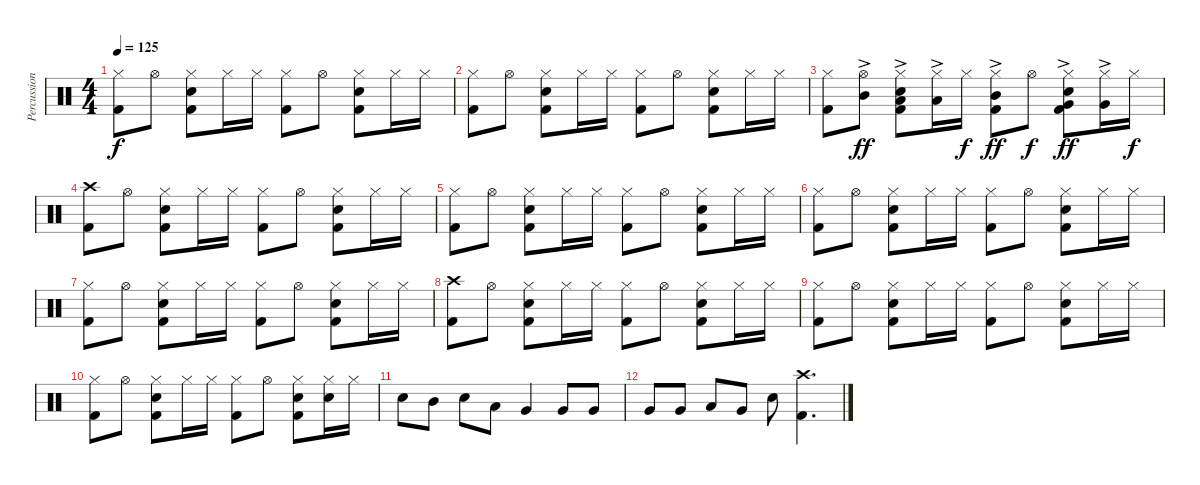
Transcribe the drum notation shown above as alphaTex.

\track ("Percussion" "Percussion") {instrument percussion}
\staff {score}
\articulation defaults
\ts (4 4)
\tempo 125
\clef neutral
\ks c
("Hi-Hat (closed)" "Kick (hit) 2").8{dy f} "Hi-Hat (open)".8 ("Hi-Hat (closed)" "Electric Snare (hit)" "Kick (hit) 2").8 "Hi-Hat (closed)".16 "Hi-Hat (closed)".16 ("Hi-Hat (closed)" "Kick (hit) 2").8 "Hi-Hat (open)".8 ("Hi-Hat (closed)" "Electric Snare (hit)" "Kick (hit) 2").8 "Hi-Hat (closed)".16 "Hi-Hat (closed)".16 |
("Hi-Hat (closed)" "Kick (hit) 2").8 "Hi-Hat (open)".8 ("Hi-Hat (closed)" "Electric Snare (hit)" "Kick (hit) 2").8 "Hi-Hat (closed)".16 "Hi-Hat (closed)".16 ("Hi-Hat (closed)" "Kick (hit) 2").8 "Hi-Hat (open)".8 ("Hi-Hat (closed)" "Electric Snare (hit)" "Kick (hit) 2").8 "Hi-Hat (closed)".16 "Hi-Hat (closed)".16 |
("Hi-Hat (closed)" "Kick (hit) 2").8 ("Hi-Hat (open)" "Mid Tom (hit)"{ac}).8{dy ff} ("Hi-Hat (closed)" "Low Tom (hit)"{ac} "Electric Snare (hit)" "Kick (hit) 2").8 ("Hi-Hat (closed)" "Low Tom (hit)"{ac}).16 "Hi-Hat (closed)".16{dy f} ("Hi-Hat (closed)" "Mid Tom (hit)"{ac} "Kick (hit) 2").8{dy ff} "Hi-Hat (open)".8{dy f} ("Hi-Hat (closed)" "Very Low Tom (hit)"{ac} "Electric Snare (hit)" "Kick (hit) 2").8{dy ff} ("Hi-Hat (closed)" "Very Low Tom (hit)"{ac}).16 "Hi-Hat (closed)".16{dy f} |
("Crash high (hit)" "Kick (hit) 2").8 "Hi-Hat (open)".8 ("Hi-Hat (closed)" "Electric Snare (hit)" "Kick (hit) 2").8 "Hi-Hat (closed)".16 "Hi-Hat (closed)".16 ("Hi-Hat (closed)" "Kick (hit) 2").8 "Hi-Hat (open)".8 ("Hi-Hat (closed)" "Electric Snare (hit)" "Kick (hit) 2").8 "Hi-Hat (closed)".16 "Hi-Hat (closed)".16 |
("Hi-Hat (closed)" "Kick (hit) 2").8 "Hi-Hat (open)".8 ("Hi-Hat (closed)" "Electric Snare (hit)" "Kick (hit) 2").8 "Hi-Hat (closed)".16 "Hi-Hat (closed)".16 ("Hi-Hat (closed)" "Kick (hit) 2").8 "Hi-Hat (open)".8 ("Hi-Hat (closed)" "Electric Snare (hit)" "Kick (hit) 2").8 "Hi-Hat (closed)".16 "Hi-Hat (closed)".16 |
("Hi-Hat (closed)" "Kick (hit) 2").8 "Hi-Hat (open)".8 ("Hi-Hat (closed)" "Electric Snare (hit)" "Kick (hit) 2").8 "Hi-Hat (closed)".16 "Hi-Hat (closed)".16 ("Hi-Hat (closed)" "Kick (hit) 2").8 "Hi-Hat (open)".8 ("Hi-Hat (closed)" "Electric Snare (hit)" "Kick (hit) 2").8 "Hi-Hat (closed)".16 "Hi-Hat (closed)".16 |
("Hi-Hat (closed)" "Kick (hit) 2").8 "Hi-Hat (open)".8 ("Hi-Hat (closed)" "Electric Snare (hit)" "Kick (hit) 2").8 "Hi-Hat (closed)".16 "Hi-Hat (closed)".16 ("Hi-Hat (closed)" "Kick (hit) 2").8 "Hi-Hat (open)".8 ("Hi-Hat (closed)" "Electric Snare (hit)" "Kick (hit) 2").8 "Hi-Hat (closed)".16 "Hi-Hat (closed)".16 |
("Crash high (hit)" "Kick (hit) 2").8 "Hi-Hat (open)".8 ("Hi-Hat (closed)" "Electric Snare (hit)" "Kick (hit) 2").8 "Hi-Hat (closed)".16 "Hi-Hat (closed)".16 ("Hi-Hat (closed)" "Kick (hit) 2").8 "Hi-Hat (open)".8 ("Hi-Hat (closed)" "Electric Snare (hit)" "Kick (hit) 2").8 "Hi-Hat (closed)".16 "Hi-Hat (closed)".16 |
("Hi-Hat (closed)" "Kick (hit) 2").8 "Hi-Hat (open)".8 ("Hi-Hat (closed)" "Electric Snare (hit)" "Kick (hit) 2").8 "Hi-Hat (closed)".16 "Hi-Hat (closed)".16 ("Hi-Hat (closed)" "Kick (hit) 2").8 "Hi-Hat (open)".8 ("Hi-Hat (closed)" "Electric Snare (hit)" "Kick (hit) 2").8 "Hi-Hat (closed)".16 "Hi-Hat (closed)".16 |
("Hi-Hat (closed)" "Kick (hit) 2").8 "Hi-Hat (open)".8 ("Hi-Hat (closed)" "Electric Snare (hit)" "Kick (hit) 2").8 "Hi-Hat (closed)".16 "Hi-Hat (closed)".16 ("Hi-Hat (closed)" "Kick (hit) 2").8 "Hi-Hat (open)".8 ("Hi-Hat (closed)" "Electric Snare (hit)" "Kick (hit) 2").8 ("Hi-Hat (closed)" "Electric Snare (hit)").16 "Hi-Hat (closed)".16 |
"Electric Snare (hit)".8 "Mid Tom (hit)".8 "Electric Snare (hit)".8 "Low Tom (hit)".8 "Very Low Tom (hit)".4 "Very Low Tom (hit)".8 "Very Low Tom (hit)".8 |
"Very Low Tom (hit)".8 "Very Low Tom (hit)".8 "Low Floor Tom (hit)".8 "Very Low Tom (hit)".8 "Electric Snare (hit)".8 ("Crash high (hit)" "Kick (hit) 2").4{d}
